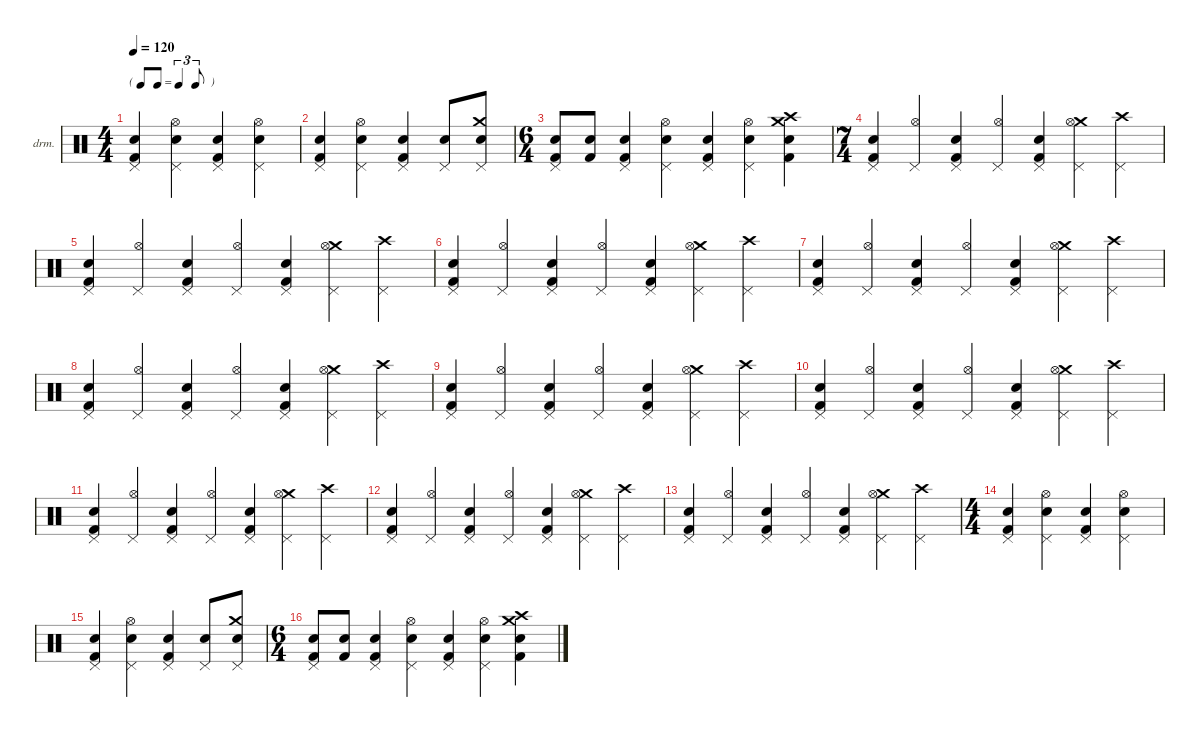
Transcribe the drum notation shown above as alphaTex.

\defaultSystemsLayout 4
\hideDynamics
\bracketExtendMode nobrackets
\firstSystemTrackNameOrientation horizontal
\otherSystemsTrackNameOrientation horizontal
\track ("Percussions" "drm.") {instrument percussion}
\staff {score}
\articulation defaults
\ts (4 4)
\beaming (8 2 2 2 2)
\tf triplet8th
\tempo 120
\clef neutral
\ks c
("Kick (hit) 2" "Snare (hit) 2" "Pedal Hi-Hat (hit)").4{dy f beam Up} ("Hi-Hat (open)" "Snare (hit) 2" "Pedal Hi-Hat (hit)").4{beam Down} ("Kick (hit) 2" "Snare (hit) 2" "Pedal Hi-Hat (hit)").4{beam Up} ("Hi-Hat (open)" "Snare (hit) 2" "Pedal Hi-Hat (hit)").4{beam Down} |
("Kick (hit) 2" "Snare (hit) 2" "Pedal Hi-Hat (hit)").4{beam Up} ("Hi-Hat (open)" "Snare (hit) 2" "Pedal Hi-Hat (hit)").4{beam Down} ("Kick (hit) 2" "Snare (hit) 2" "Pedal Hi-Hat (hit)").4{beam Up} ("Snare (hit) 2" "Pedal Hi-Hat (hit)").8{beam Up} ("Crash medium (hit)" "Snare (hit) 2" "Pedal Hi-Hat (hit)").8{beam Up} |
\ts (6 4)
\beaming (8 6 6)
("Kick (hit) 2" "Snare (hit) 2" "Pedal Hi-Hat (hit)").8{beam Up} ("Snare (hit) 2" "Kick (hit) 2").8{beam Up} ("Kick (hit) 2" "Snare (hit) 2" "Pedal Hi-Hat (hit)").4{beam Up} ("Hi-Hat (open)" "Snare (hit) 2" "Pedal Hi-Hat (hit)").4{beam Down} ("Kick (hit) 2" "Snare (hit) 2" "Pedal Hi-Hat (hit)").4{beam Up} ("Hi-Hat (open)" "Snare (hit) 2" "Pedal Hi-Hat (hit)").4{beam Down} ("Kick (hit) 2" "Crash high (hit)" "Crash medium (hit)" "Snare (hit) 2").4{beam Down} |
\ts (7 4)
\beaming (8 6 4 4)
("Kick (hit) 2" "Snare (hit) 2" "Pedal Hi-Hat (hit)").4{beam Up} ("Hi-Hat (open)" "Pedal Hi-Hat (hit)").4{beam Up} ("Kick (hit) 2" "Snare (hit) 2" "Pedal Hi-Hat (hit)").4{beam Up} ("Hi-Hat (open)" "Pedal Hi-Hat (hit)").4{beam Up} ("Kick (hit) 2" "Snare (hit) 2" "Pedal Hi-Hat (hit)").4{beam Up} ("Crash medium (hit)" "Hi-Hat (open)" "Pedal Hi-Hat (hit)").4{beam Down} ("Crash high (hit)" "Pedal Hi-Hat (hit)").4{beam Down} |
("Kick (hit) 2" "Snare (hit) 2" "Pedal Hi-Hat (hit)").4{beam Up} ("Hi-Hat (open)" "Pedal Hi-Hat (hit)").4{beam Up} ("Kick (hit) 2" "Snare (hit) 2" "Pedal Hi-Hat (hit)").4{beam Up} ("Hi-Hat (open)" "Pedal Hi-Hat (hit)").4{beam Up} ("Kick (hit) 2" "Snare (hit) 2" "Pedal Hi-Hat (hit)").4{beam Up} ("Crash medium (hit)" "Hi-Hat (open)" "Pedal Hi-Hat (hit)").4{beam Down} ("Crash high (hit)" "Pedal Hi-Hat (hit)").4{beam Down} |
("Kick (hit) 2" "Snare (hit) 2" "Pedal Hi-Hat (hit)").4{beam Up} ("Hi-Hat (open)" "Pedal Hi-Hat (hit)").4{beam Up} ("Kick (hit) 2" "Snare (hit) 2" "Pedal Hi-Hat (hit)").4{beam Up} ("Hi-Hat (open)" "Pedal Hi-Hat (hit)").4{beam Up} ("Kick (hit) 2" "Snare (hit) 2" "Pedal Hi-Hat (hit)").4{beam Up} ("Crash medium (hit)" "Hi-Hat (open)" "Pedal Hi-Hat (hit)").4{beam Down} ("Crash high (hit)" "Pedal Hi-Hat (hit)").4{beam Down} |
("Kick (hit) 2" "Snare (hit) 2" "Pedal Hi-Hat (hit)").4{beam Up} ("Hi-Hat (open)" "Pedal Hi-Hat (hit)").4{beam Up} ("Kick (hit) 2" "Snare (hit) 2" "Pedal Hi-Hat (hit)").4{beam Up} ("Hi-Hat (open)" "Pedal Hi-Hat (hit)").4{beam Up} ("Kick (hit) 2" "Snare (hit) 2" "Pedal Hi-Hat (hit)").4{beam Up} ("Crash medium (hit)" "Hi-Hat (open)" "Pedal Hi-Hat (hit)").4{beam Down} ("Crash high (hit)" "Pedal Hi-Hat (hit)").4{beam Down} |
("Kick (hit) 2" "Snare (hit) 2" "Pedal Hi-Hat (hit)").4{beam Up} ("Hi-Hat (open)" "Pedal Hi-Hat (hit)").4{beam Up} ("Kick (hit) 2" "Snare (hit) 2" "Pedal Hi-Hat (hit)").4{beam Up} ("Hi-Hat (open)" "Pedal Hi-Hat (hit)").4{beam Up} ("Kick (hit) 2" "Snare (hit) 2" "Pedal Hi-Hat (hit)").4{beam Up} ("Crash medium (hit)" "Hi-Hat (open)" "Pedal Hi-Hat (hit)").4{beam Down} ("Crash high (hit)" "Pedal Hi-Hat (hit)").4{beam Down} |
("Kick (hit) 2" "Snare (hit) 2" "Pedal Hi-Hat (hit)").4{beam Up} ("Hi-Hat (open)" "Pedal Hi-Hat (hit)").4{beam Up} ("Kick (hit) 2" "Snare (hit) 2" "Pedal Hi-Hat (hit)").4{beam Up} ("Hi-Hat (open)" "Pedal Hi-Hat (hit)").4{beam Up} ("Kick (hit) 2" "Snare (hit) 2" "Pedal Hi-Hat (hit)").4{beam Up} ("Crash medium (hit)" "Hi-Hat (open)" "Pedal Hi-Hat (hit)").4{beam Down} ("Crash high (hit)" "Pedal Hi-Hat (hit)").4{beam Down} |
("Kick (hit) 2" "Snare (hit) 2" "Pedal Hi-Hat (hit)").4{beam Up} ("Hi-Hat (open)" "Pedal Hi-Hat (hit)").4{beam Up} ("Kick (hit) 2" "Snare (hit) 2" "Pedal Hi-Hat (hit)").4{beam Up} ("Hi-Hat (open)" "Pedal Hi-Hat (hit)").4{beam Up} ("Kick (hit) 2" "Snare (hit) 2" "Pedal Hi-Hat (hit)").4{beam Up} ("Crash medium (hit)" "Hi-Hat (open)" "Pedal Hi-Hat (hit)").4{beam Down} ("Crash high (hit)" "Pedal Hi-Hat (hit)").4{beam Down} |
("Kick (hit) 2" "Snare (hit) 2" "Pedal Hi-Hat (hit)").4{beam Up} ("Hi-Hat (open)" "Pedal Hi-Hat (hit)").4{beam Up} ("Kick (hit) 2" "Snare (hit) 2" "Pedal Hi-Hat (hit)").4{beam Up} ("Hi-Hat (open)" "Pedal Hi-Hat (hit)").4{beam Up} ("Kick (hit) 2" "Snare (hit) 2" "Pedal Hi-Hat (hit)").4{beam Up} ("Crash medium (hit)" "Hi-Hat (open)" "Pedal Hi-Hat (hit)").4{beam Down} ("Crash high (hit)" "Pedal Hi-Hat (hit)").4{beam Down} |
("Kick (hit) 2" "Snare (hit) 2" "Pedal Hi-Hat (hit)").4{beam Up} ("Hi-Hat (open)" "Pedal Hi-Hat (hit)").4{beam Up} ("Kick (hit) 2" "Snare (hit) 2" "Pedal Hi-Hat (hit)").4{beam Up} ("Hi-Hat (open)" "Pedal Hi-Hat (hit)").4{beam Up} ("Kick (hit) 2" "Snare (hit) 2" "Pedal Hi-Hat (hit)").4{beam Up} ("Crash medium (hit)" "Hi-Hat (open)" "Pedal Hi-Hat (hit)").4{beam Down} ("Crash high (hit)" "Pedal Hi-Hat (hit)").4{beam Down} |
("Kick (hit) 2" "Snare (hit) 2" "Pedal Hi-Hat (hit)").4{beam Up} ("Hi-Hat (open)" "Pedal Hi-Hat (hit)").4{beam Up} ("Kick (hit) 2" "Snare (hit) 2" "Pedal Hi-Hat (hit)").4{beam Up} ("Hi-Hat (open)" "Pedal Hi-Hat (hit)").4{beam Up} ("Kick (hit) 2" "Snare (hit) 2" "Pedal Hi-Hat (hit)").4{beam Up} ("Crash medium (hit)" "Hi-Hat (open)" "Pedal Hi-Hat (hit)").4{beam Down} ("Crash high (hit)" "Pedal Hi-Hat (hit)").4{beam Down} |
\ts (4 4)
\beaming (8 2 2 2 2)
("Kick (hit) 2" "Snare (hit) 2" "Pedal Hi-Hat (hit)").4{beam Up} ("Hi-Hat (open)" "Snare (hit) 2" "Pedal Hi-Hat (hit)").4{beam Down} ("Kick (hit) 2" "Snare (hit) 2" "Pedal Hi-Hat (hit)").4{beam Up} ("Hi-Hat (open)" "Snare (hit) 2" "Pedal Hi-Hat (hit)").4{beam Down} |
("Kick (hit) 2" "Snare (hit) 2" "Pedal Hi-Hat (hit)").4{beam Up} ("Hi-Hat (open)" "Snare (hit) 2" "Pedal Hi-Hat (hit)").4{beam Down} ("Kick (hit) 2" "Snare (hit) 2" "Pedal Hi-Hat (hit)").4{beam Up} ("Snare (hit) 2" "Pedal Hi-Hat (hit)").8{beam Up} ("Crash medium (hit)" "Snare (hit) 2" "Pedal Hi-Hat (hit)").8{beam Up} |
\ts (6 4)
\beaming (8 6 6)
("Kick (hit) 2" "Snare (hit) 2" "Pedal Hi-Hat (hit)").8{beam Up} ("Snare (hit) 2" "Kick (hit) 2").8{beam Up} ("Kick (hit) 2" "Snare (hit) 2" "Pedal Hi-Hat (hit)").4{beam Up} ("Hi-Hat (open)" "Snare (hit) 2" "Pedal Hi-Hat (hit)").4{beam Down} ("Kick (hit) 2" "Snare (hit) 2" "Pedal Hi-Hat (hit)").4{beam Up} ("Hi-Hat (open)" "Snare (hit) 2" "Pedal Hi-Hat (hit)").4{beam Down} ("Kick (hit) 2" "Crash high (hit)" "Crash medium (hit)" "Snare (hit) 2").4{beam Down}
